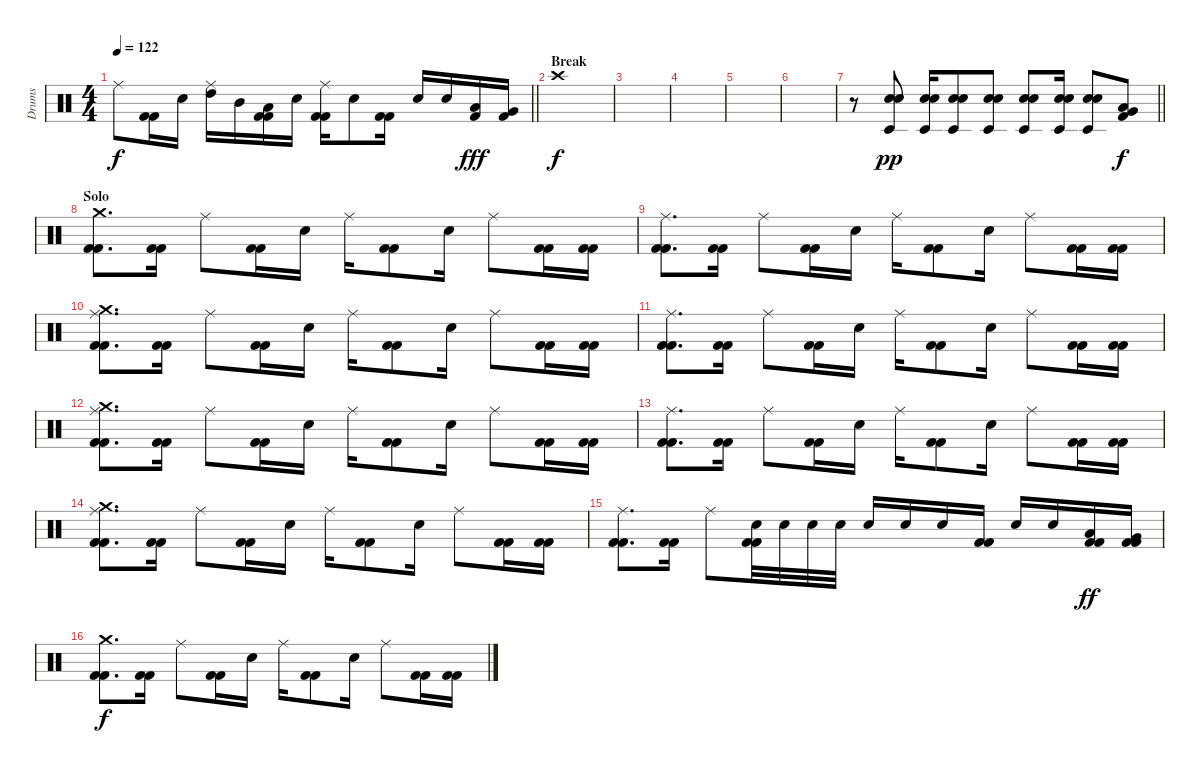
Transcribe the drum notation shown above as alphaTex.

\track ("Drums" "Drums") {instrument percussion}
\staff {score}
\articulation defaults
\ts (4 4)
\tempo 122
\clef neutral
\barLineRight lightlight
\ks c "Ride (middle)".8{dy f}
("Kick (hit) 2" "Kick (hit) 2").16 "Electric Snare (hit)".16 ("Ride (middle)" "High Tom (hit)").16 "Mid Tom (hit)".16 ("Low Tom (hit)" "Kick (hit) 2" "Kick (hit) 2").16 "Electric Snare (hit)".16 ("Ride (middle)" "Kick (hit) 2" "Kick (hit) 2").16 "Electric Snare (hit)".8 ("Kick (hit) 2" "Kick (hit) 2").16 "Electric Snare (hit)".16 "Electric Snare (hit)".16 ("Low Tom (hit)" "Kick (hit) 2").16{dy fff} ("Very Low Tom (hit)" "Kick (hit) 2").16 |
\section ("" "Break")
"Crash high (hit)".1{dy f} |
|
|
|
|
\barLineRight lightlight
r.8 ("Snare (hit) 2" "Electric Snare (hit)" "Timbale low (hit)").8{dy pp} ("Snare (hit) 2" "Electric Snare (hit)" "Timbale low (hit)").16 ("Snare (hit) 2" "Electric Snare (hit)" "Timbale low (hit)").8 ("Snare (hit) 2" "Electric Snare (hit)" "Timbale low (hit)").8 ("Snare (hit) 2" "Electric Snare (hit)" "Timbale low (hit)").8 ("Snare (hit) 2" "Electric Snare (hit)" "Timbale low (hit)").16 ("Snare (hit) 2" "Electric Snare (hit)" "Timbale low (hit)").8 ("Low Tom (hit)" "Very Low Tom (hit)" "Kick (hit) 2").8{dy f} |
\section ("" "Solo")
("Crash medium (hit)" "Kick (hit) 2" "Kick (hit) 2").8{d} ("Kick (hit) 2" "Kick (hit) 2").16 "Ride (middle)".8 ("Kick (hit) 2" "Kick (hit) 2").16 "Electric Snare (hit)".16 "Ride (middle)".16 ("Kick (hit) 2" "Kick (hit) 2").8 "Electric Snare (hit)".16 "Ride (middle)".8 ("Kick (hit) 2" "Kick (hit) 2").16 ("Kick (hit) 2" "Kick (hit) 2").16 |
("Ride (middle)" "Kick (hit) 2" "Kick (hit) 2").8{d} ("Kick (hit) 2" "Kick (hit) 2").16 "Ride (middle)".8 ("Kick (hit) 2" "Kick (hit) 2").16 "Electric Snare (hit)".16 "Ride (middle)".16 ("Kick (hit) 2" "Kick (hit) 2").8 "Electric Snare (hit)".16 "Ride (middle)".8 ("Kick (hit) 2" "Kick (hit) 2").16 ("Kick (hit) 2" "Kick (hit) 2").16 |
("Crash medium (hit)" "Ride (middle)" "Kick (hit) 2" "Kick (hit) 2").8{d} ("Kick (hit) 2" "Kick (hit) 2").16 "Ride (middle)".8 ("Kick (hit) 2" "Kick (hit) 2").16 "Electric Snare (hit)".16 "Ride (middle)".16 ("Kick (hit) 2" "Kick (hit) 2").8 "Electric Snare (hit)".16 "Ride (middle)".8 ("Kick (hit) 2" "Kick (hit) 2").16 ("Kick (hit) 2" "Kick (hit) 2").16 |
("Ride (middle)" "Kick (hit) 2" "Kick (hit) 2").8{d} ("Kick (hit) 2" "Kick (hit) 2").16 "Ride (middle)".8 ("Kick (hit) 2" "Kick (hit) 2").16 "Electric Snare (hit)".16 "Ride (middle)".16 ("Kick (hit) 2" "Kick (hit) 2").8 "Electric Snare (hit)".16 "Ride (middle)".8 ("Kick (hit) 2" "Kick (hit) 2").16 ("Kick (hit) 2" "Kick (hit) 2").16 |
("Crash medium (hit)" "Ride (middle)" "Kick (hit) 2" "Kick (hit) 2").8{d} ("Kick (hit) 2" "Kick (hit) 2").16 "Ride (middle)".8 ("Kick (hit) 2" "Kick (hit) 2").16 "Electric Snare (hit)".16 "Ride (middle)".16 ("Kick (hit) 2" "Kick (hit) 2").8 "Electric Snare (hit)".16 "Ride (middle)".8 ("Kick (hit) 2" "Kick (hit) 2").16 ("Kick (hit) 2" "Kick (hit) 2").16 |
("Ride (middle)" "Kick (hit) 2" "Kick (hit) 2").8{d} ("Kick (hit) 2" "Kick (hit) 2").16 "Ride (middle)".8 ("Kick (hit) 2" "Kick (hit) 2").16 "Electric Snare (hit)".16 "Ride (middle)".16 ("Kick (hit) 2" "Kick (hit) 2").8 "Electric Snare (hit)".16 "Ride (middle)".8 ("Kick (hit) 2" "Kick (hit) 2").16 ("Kick (hit) 2" "Kick (hit) 2").16 |
("Crash medium (hit)" "Ride (middle)" "Kick (hit) 2" "Kick (hit) 2").8{d} ("Kick (hit) 2" "Kick (hit) 2").16 "Ride (middle)".8 ("Kick (hit) 2" "Kick (hit) 2").16 "Electric Snare (hit)".16 "Ride (middle)".16 ("Kick (hit) 2" "Kick (hit) 2").8 "Electric Snare (hit)".16 "Ride (middle)".8 ("Kick (hit) 2" "Kick (hit) 2").16 ("Kick (hit) 2" "Kick (hit) 2").16 |
("Ride (middle)" "Kick (hit) 2" "Kick (hit) 2").8{d} ("Kick (hit) 2" "Kick (hit) 2").16 "Ride (middle)".8 ("Electric Snare (hit)" "Kick (hit) 2" "Kick (hit) 2").32 "Electric Snare (hit)".32 "Electric Snare (hit)".32 "Electric Snare (hit)".32 "Electric Snare (hit)".16 "Electric Snare (hit)".16 "Electric Snare (hit)".16 ("Kick (hit) 2" "Kick (hit) 2").16 "Electric Snare (hit)".16 "Electric Snare (hit)".16 ("Low Tom (hit)" "Kick (hit) 2" "Kick (hit) 2").16{dy ff} ("Very Low Tom (hit)" "Kick (hit) 2" "Kick (hit) 2").16 |
("Crash medium (hit)" "Kick (hit) 2" "Kick (hit) 2").8{d dy f} ("Kick (hit) 2" "Kick (hit) 2").16 "Ride (middle)".8 ("Kick (hit) 2" "Kick (hit) 2").16 "Electric Snare (hit)".16 "Ride (middle)".16 ("Kick (hit) 2" "Kick (hit) 2").8 "Electric Snare (hit)".16 "Ride (middle)".8 ("Kick (hit) 2" "Kick (hit) 2").16 ("Kick (hit) 2" "Kick (hit) 2").16
